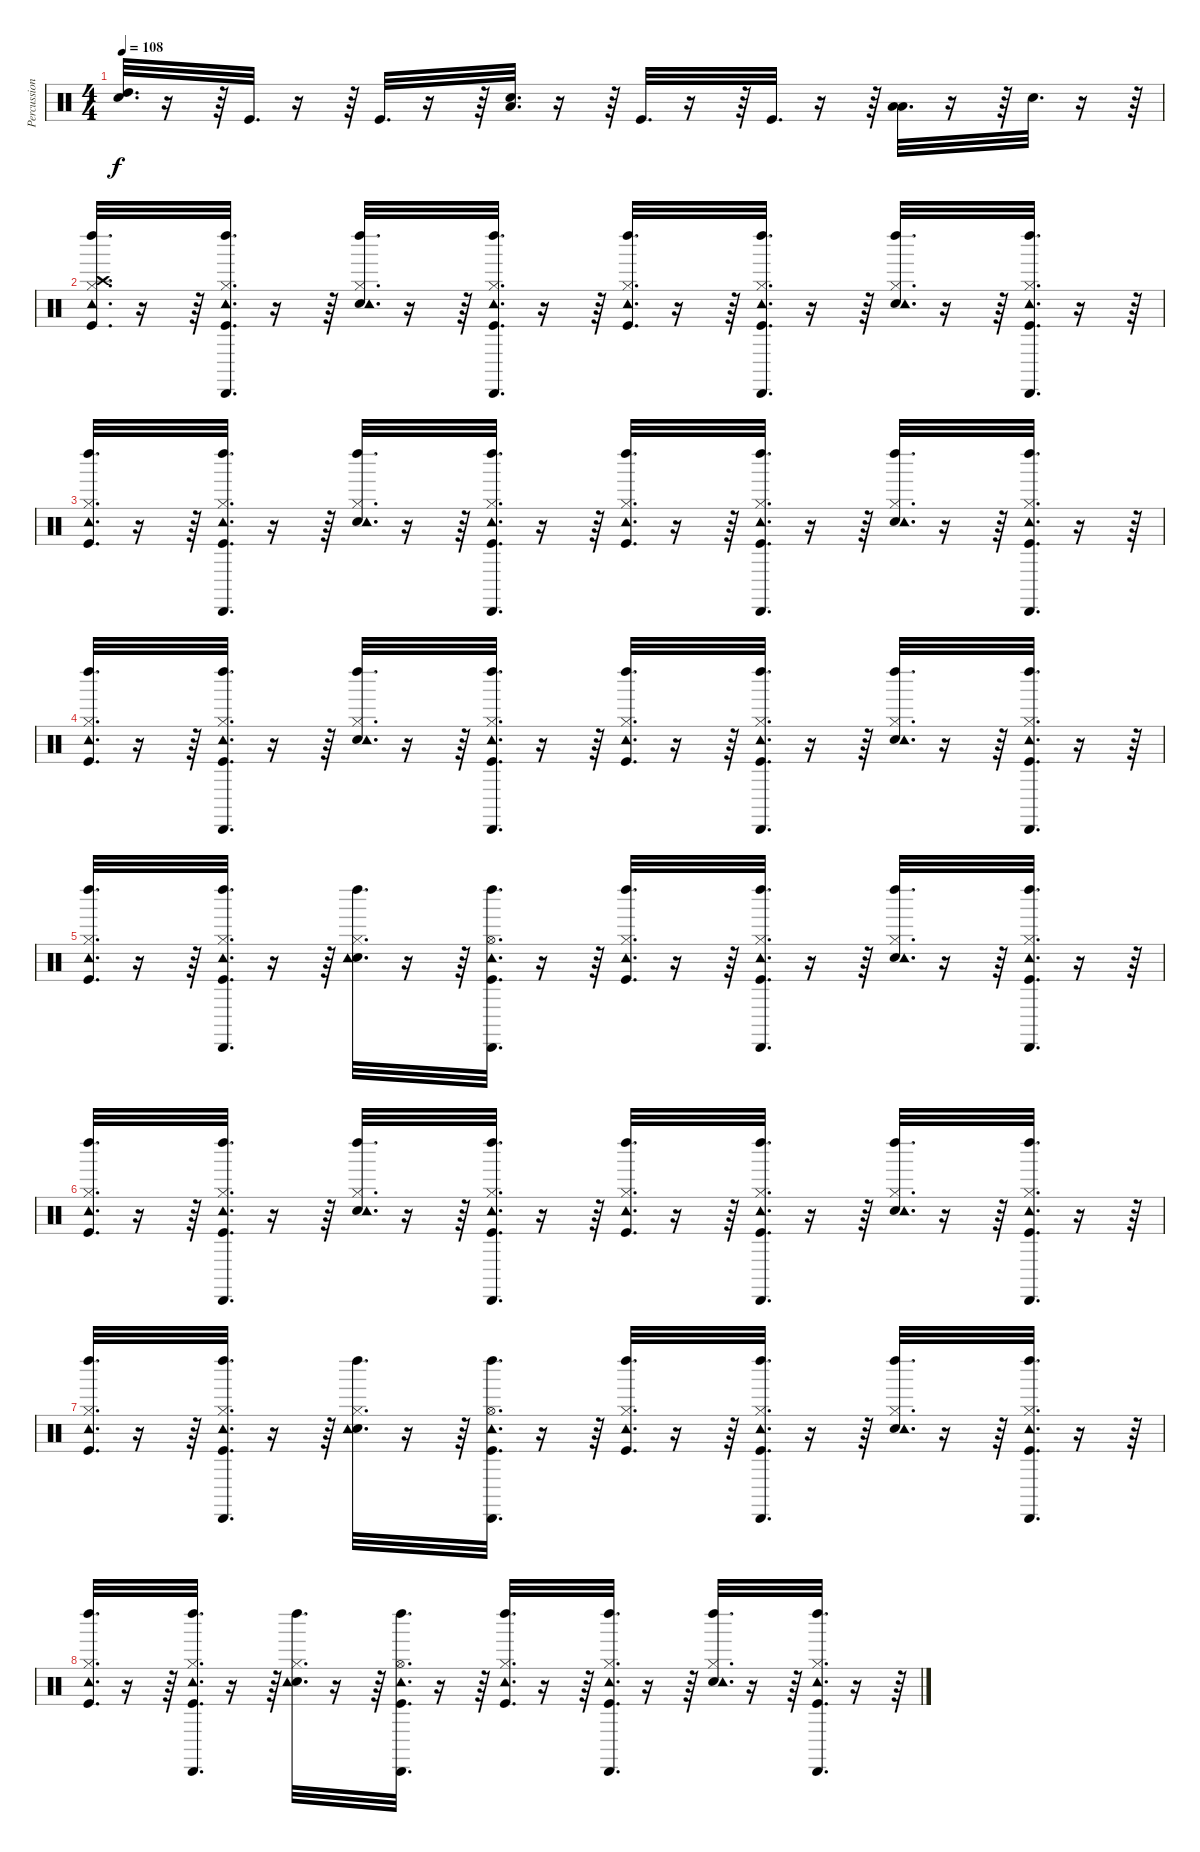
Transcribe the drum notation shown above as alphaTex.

\track ("Percussions" "Percussion") {instrument percussion}
\staff {score}
\articulation defaults
\ts (4 4)
\tempo 108
\clef neutral
\ks c
("High Tom (hit)" "Snare (hit) 2").32{d dy f} r.16 r.64 "Kick (hit)".32{d} r.16 r.64 "Kick (hit)".32{d} r.16 r.64 ("Low Tom (hit)" "Snare (hit) 2").32{d} r.16 r.64 "Kick (hit)".32{d} r.16 r.64 "Kick (hit)".32{d} r.16 r.64 ("Low Tom (hit)" "Low Floor Tom (hit)").32{d} r.16 r.64 "Snare (hit) 2".32{d} r.16 r.64 |
("Left Maraca (hit)" "Crash high (hit)" "Kick (hit)" "Hi-Hat (closed)" "Tambourine (hit)").32{d} r.16 r.64 ("Cabasa (hit)" "Tambourine (hit)" "Kick (hit)" "Hi-Hat (closed)" "Left Maraca (hit)").32{d} r.16 r.64 ("Left Maraca (hit)" "Snare (hit) 2" "Hi-Hat (closed)" "Tambourine (hit)").32{d} r.16 r.64 ("Cabasa (hit)" "Tambourine (hit)" "Kick (hit)" "Hi-Hat (closed)" "Left Maraca (hit)").32{d} r.16 r.64 ("Left Maraca (hit)" "Kick (hit)" "Hi-Hat (closed)" "Tambourine (hit)").32{d} r.16 r.64 ("Cabasa (hit)" "Tambourine (hit)" "Kick (hit)" "Hi-Hat (closed)" "Left Maraca (hit)").32{d} r.16 r.64 ("Left Maraca (hit)" "Snare (hit) 2" "Hi-Hat (closed)" "Tambourine (hit)").32{d} r.16 r.64 ("Cabasa (hit)" "Tambourine (hit)" "Kick (hit)" "Hi-Hat (closed)" "Left Maraca (hit)").32{d} r.16 r.64 |
("Left Maraca (hit)" "Kick (hit)" "Hi-Hat (closed)" "Tambourine (hit)").32{d} r.16 r.64 ("Cabasa (hit)" "Tambourine (hit)" "Kick (hit)" "Hi-Hat (closed)" "Left Maraca (hit)").32{d} r.16 r.64 ("Left Maraca (hit)" "Snare (hit) 2" "Hi-Hat (closed)" "Tambourine (hit)").32{d} r.16 r.64 ("Cabasa (hit)" "Tambourine (hit)" "Kick (hit)" "Hi-Hat (closed)" "Left Maraca (hit)").32{d} r.16 r.64 ("Left Maraca (hit)" "Kick (hit)" "Hi-Hat (closed)" "Tambourine (hit)").32{d} r.16 r.64 ("Cabasa (hit)" "Tambourine (hit)" "Kick (hit)" "Hi-Hat (closed)" "Left Maraca (hit)").32{d} r.16 r.64 ("Left Maraca (hit)" "Snare (hit) 2" "Hi-Hat (closed)" "Tambourine (hit)").32{d} r.16 r.64 ("Cabasa (hit)" "Tambourine (hit)" "Kick (hit)" "Hi-Hat (closed)" "Left Maraca (hit)").32{d} r.16 r.64 |
("Left Maraca (hit)" "Kick (hit)" "Hi-Hat (closed)" "Tambourine (hit)").32{d} r.16 r.64 ("Cabasa (hit)" "Tambourine (hit)" "Kick (hit)" "Hi-Hat (closed)" "Left Maraca (hit)").32{d} r.16 r.64 ("Left Maraca (hit)" "Snare (hit) 2" "Hi-Hat (closed)" "Tambourine (hit)").32{d} r.16 r.64 ("Cabasa (hit)" "Tambourine (hit)" "Kick (hit)" "Hi-Hat (closed)" "Left Maraca (hit)").32{d} r.16 r.64 ("Left Maraca (hit)" "Kick (hit)" "Hi-Hat (closed)" "Tambourine (hit)").32{d} r.16 r.64 ("Cabasa (hit)" "Tambourine (hit)" "Kick (hit)" "Hi-Hat (closed)" "Left Maraca (hit)").32{d} r.16 r.64 ("Left Maraca (hit)" "Snare (hit) 2" "Hi-Hat (closed)" "Tambourine (hit)").32{d} r.16 r.64 ("Cabasa (hit)" "Tambourine (hit)" "Kick (hit)" "Hi-Hat (closed)" "Left Maraca (hit)").32{d} r.16 r.64 |
("Left Maraca (hit)" "Kick (hit)" "Hi-Hat (closed)" "Tambourine (hit)").32{d} r.16 r.64 ("Cabasa (hit)" "Tambourine (hit)" "Kick (hit)" "Hi-Hat (closed)" "Left Maraca (hit)").32{d} r.16 r.64 ("Left Maraca (hit)" "Snare (hit) 2" "Hi-Hat (closed)" "Tambourine (hit)").32{d} r.16 r.64 ("Cabasa (hit)" "Tambourine (hit)" "Kick (hit)" "Hi-Hat (open)" "Left Maraca (hit)").32{d} r.16 r.64 ("Left Maraca (hit)" "Kick (hit)" "Hi-Hat (closed)" "Tambourine (hit)").32{d} r.16 r.64 ("Cabasa (hit)" "Tambourine (hit)" "Kick (hit)" "Hi-Hat (closed)" "Left Maraca (hit)").32{d} r.16 r.64 ("Left Maraca (hit)" "Snare (hit) 2" "Hi-Hat (closed)" "Tambourine (hit)").32{d} r.16 r.64 ("Cabasa (hit)" "Tambourine (hit)" "Kick (hit)" "Hi-Hat (closed)" "Left Maraca (hit)").32{d} r.16 r.64 |
("Left Maraca (hit)" "Kick (hit)" "Hi-Hat (closed)" "Tambourine (hit)").32{d} r.16 r.64 ("Cabasa (hit)" "Tambourine (hit)" "Kick (hit)" "Hi-Hat (closed)" "Left Maraca (hit)").32{d} r.16 r.64 ("Left Maraca (hit)" "Snare (hit) 2" "Hi-Hat (closed)" "Tambourine (hit)").32{d} r.16 r.64 ("Cabasa (hit)" "Tambourine (hit)" "Kick (hit)" "Hi-Hat (closed)" "Left Maraca (hit)").32{d} r.16 r.64 ("Left Maraca (hit)" "Kick (hit)" "Hi-Hat (closed)" "Tambourine (hit)").32{d} r.16 r.64 ("Cabasa (hit)" "Tambourine (hit)" "Kick (hit)" "Hi-Hat (closed)" "Left Maraca (hit)").32{d} r.16 r.64 ("Left Maraca (hit)" "Snare (hit) 2" "Hi-Hat (closed)" "Tambourine (hit)").32{d} r.16 r.64 ("Cabasa (hit)" "Tambourine (hit)" "Kick (hit)" "Hi-Hat (closed)" "Left Maraca (hit)").32{d} r.16 r.64 |
("Left Maraca (hit)" "Kick (hit)" "Hi-Hat (closed)" "Tambourine (hit)").32{d} r.16 r.64 ("Cabasa (hit)" "Tambourine (hit)" "Kick (hit)" "Hi-Hat (closed)" "Left Maraca (hit)").32{d} r.16 r.64 ("Left Maraca (hit)" "Snare (hit) 2" "Hi-Hat (closed)" "Tambourine (hit)").32{d} r.16 r.64 ("Cabasa (hit)" "Tambourine (hit)" "Kick (hit)" "Hi-Hat (open)" "Left Maraca (hit)").32{d} r.16 r.64 ("Left Maraca (hit)" "Kick (hit)" "Hi-Hat (closed)" "Tambourine (hit)").32{d} r.16 r.64 ("Cabasa (hit)" "Tambourine (hit)" "Kick (hit)" "Hi-Hat (closed)" "Left Maraca (hit)").32{d} r.16 r.64 ("Left Maraca (hit)" "Snare (hit) 2" "Hi-Hat (closed)" "Tambourine (hit)").32{d} r.16 r.64 ("Cabasa (hit)" "Tambourine (hit)" "Kick (hit)" "Hi-Hat (closed)" "Left Maraca (hit)").32{d} r.16 r.64 |
("Left Maraca (hit)" "Kick (hit)" "Hi-Hat (closed)" "Tambourine (hit)").32{d} r.16 r.64 ("Cabasa (hit)" "Tambourine (hit)" "Kick (hit)" "Hi-Hat (closed)" "Left Maraca (hit)").32{d} r.16 r.64 ("Left Maraca (hit)" "Snare (hit) 2" "Hi-Hat (closed)" "Tambourine (hit)").32{d} r.16 r.64 ("Cabasa (hit)" "Tambourine (hit)" "Kick (hit)" "Hi-Hat (open)" "Left Maraca (hit)").32{d} r.16 r.64 ("Left Maraca (hit)" "Kick (hit)" "Hi-Hat (closed)" "Tambourine (hit)").32{d} r.16 r.64 ("Cabasa (hit)" "Tambourine (hit)" "Kick (hit)" "Hi-Hat (closed)" "Left Maraca (hit)").32{d} r.16 r.64 ("Left Maraca (hit)" "Snare (hit) 2" "Hi-Hat (closed)" "Tambourine (hit)").32{d} r.16 r.64 ("Cabasa (hit)" "Tambourine (hit)" "Kick (hit)" "Hi-Hat (closed)" "Left Maraca (hit)").32{d} r.16 r.64
